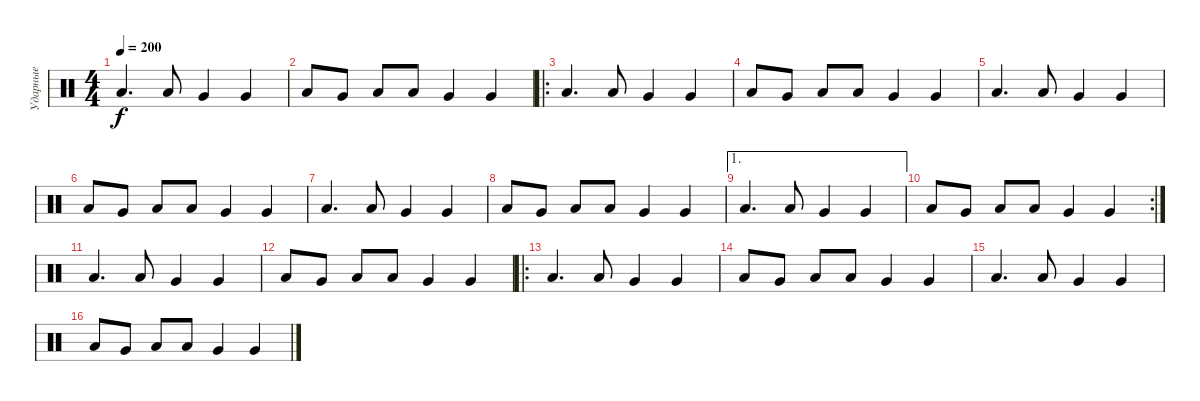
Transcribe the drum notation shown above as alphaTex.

\track ("Ударные" "Ударные") {instrument percussion}
\staff {score}
\articulation defaults
\ts (4 4)
\tempo 200
\clef neutral
\ks c "Low Floor Tom (hit)".4{d dy f} "Low Floor Tom (hit)".8 "Very Low Tom (hit)".4 "Very Low Tom (hit)".4
|
"Low Floor Tom (hit)".8 "Very Low Tom (hit)".8 "Low Floor Tom (hit)".8 "Low Floor Tom (hit)".8 "Very Low Tom (hit)".4 "Very Low Tom (hit)".4 |
\ro "Low Floor Tom (hit)".4{d} "Low Floor Tom (hit)".8 "Very Low Tom (hit)".4 "Very Low Tom (hit)".4
|
"Low Floor Tom (hit)".8 "Very Low Tom (hit)".8 "Low Floor Tom (hit)".8 "Low Floor Tom (hit)".8 "Very Low Tom (hit)".4 "Very Low Tom (hit)".4 |
"Low Floor Tom (hit)".4{d} "Low Floor Tom (hit)".8 "Very Low Tom (hit)".4 "Very Low Tom (hit)".4 |
"Low Floor Tom (hit)".8 "Very Low Tom (hit)".8 "Low Floor Tom (hit)".8 "Low Floor Tom (hit)".8 "Very Low Tom (hit)".4 "Very Low Tom (hit)".4 |
"Low Floor Tom (hit)".4{d} "Low Floor Tom (hit)".8 "Very Low Tom (hit)".4 "Very Low Tom (hit)".4 |
"Low Floor Tom (hit)".8 "Very Low Tom (hit)".8 "Low Floor Tom (hit)".8 "Low Floor Tom (hit)".8 "Very Low Tom (hit)".4 "Very Low Tom (hit)".4 |
\ae 1 "Low Floor Tom (hit)".4{d} "Low Floor Tom (hit)".8 "Very Low Tom (hit)".4 "Very Low Tom (hit)".4
|
\rc 2 "Low Floor Tom (hit)".8 "Very Low Tom (hit)".8 "Low Floor Tom (hit)".8 "Low Floor Tom (hit)".8 "Very Low Tom (hit)".4 "Very Low Tom (hit)".4
|
"Low Floor Tom (hit)".4{d} "Low Floor Tom (hit)".8 "Very Low Tom (hit)".4 "Very Low Tom (hit)".4 |
"Low Floor Tom (hit)".8 "Very Low Tom (hit)".8 "Low Floor Tom (hit)".8 "Low Floor Tom (hit)".8 "Very Low Tom (hit)".4 "Very Low Tom (hit)".4 |
\ro "Low Floor Tom (hit)".4{d} "Low Floor Tom (hit)".8 "Very Low Tom (hit)".4 "Very Low Tom (hit)".4
|
"Low Floor Tom (hit)".8 "Very Low Tom (hit)".8 "Low Floor Tom (hit)".8 "Low Floor Tom (hit)".8 "Very Low Tom (hit)".4 "Very Low Tom (hit)".4 |
"Low Floor Tom (hit)".4{d} "Low Floor Tom (hit)".8 "Very Low Tom (hit)".4 "Very Low Tom (hit)".4 |
"Low Floor Tom (hit)".8 "Very Low Tom (hit)".8 "Low Floor Tom (hit)".8 "Low Floor Tom (hit)".8 "Very Low Tom (hit)".4 "Very Low Tom (hit)".4
